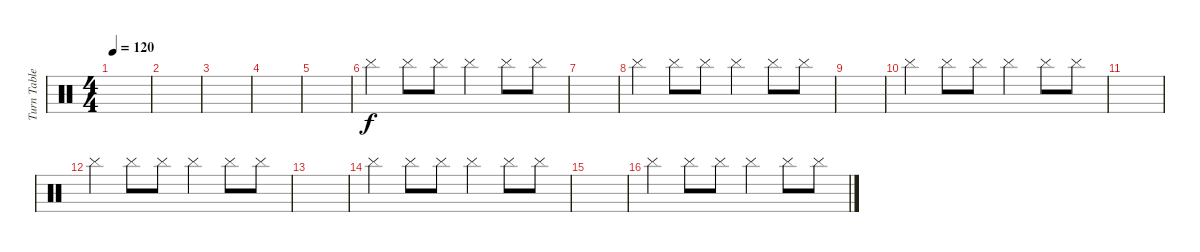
\track ("Turn Tables" "Turn Table") {instrument percussion}
\staff {score}
\articulation defaults
\ts (4 4)
\tempo 120
\clef neutral
\ks c
|
|
|
|
|
"Cymbal (hit)".4 "Cymbal (hit)".8 "Cymbal (hit)".8 "Cymbal (hit)".4 "Cymbal (hit)".8 "Cymbal (hit)".8 |
|
"Cymbal (hit)".4 "Cymbal (hit)".8 "Cymbal (hit)".8 "Cymbal (hit)".4 "Cymbal (hit)".8 "Cymbal (hit)".8 |
|
"Cymbal (hit)".4 "Cymbal (hit)".8 "Cymbal (hit)".8 "Cymbal (hit)".4 "Cymbal (hit)".8 "Cymbal (hit)".8 |
|
"Cymbal (hit)".4 "Cymbal (hit)".8 "Cymbal (hit)".8 "Cymbal (hit)".4 "Cymbal (hit)".8 "Cymbal (hit)".8 |
|
"Cymbal (hit)".4 "Cymbal (hit)".8 "Cymbal (hit)".8 "Cymbal (hit)".4 "Cymbal (hit)".8 "Cymbal (hit)".8 |
|
"Cymbal (hit)".4 "Cymbal (hit)".8 "Cymbal (hit)".8 "Cymbal (hit)".4 "Cymbal (hit)".8 "Cymbal (hit)".8
